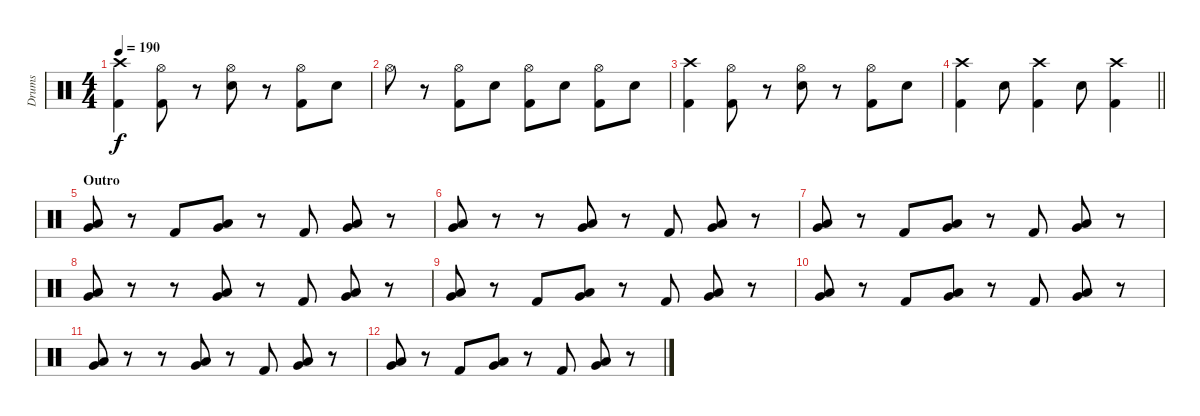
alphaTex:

\track ("Drums" "Drums") {instrument percussion}
\staff {score}
\articulation defaults
\ts (4 4)
\tempo 190
\clef neutral
\ks c
("Crash high (hit)" "Kick (hit) 2").4{dy f} ("Hi-Hat (open)" "Kick (hit) 2").8 r.8 ("Snare (hit) 2" "Hi-Hat (open)").8 r.8 ("Hi-Hat (open)" "Kick (hit) 2").8 "Snare (hit) 2".8 |
"Hi-Hat (open)".8 r.8 ("Hi-Hat (open)" "Kick (hit) 2").8 "Snare (hit) 2".8 ("Hi-Hat (open)" "Kick (hit) 2").8 "Snare (hit) 2".8 ("Hi-Hat (open)" "Kick (hit) 2").8 "Snare (hit) 2".8 |
("Crash high (hit)" "Kick (hit) 2").4 ("Hi-Hat (open)" "Kick (hit) 2").8 r.8 ("Snare (hit) 2" "Hi-Hat (open)").8 r.8 ("Hi-Hat (open)" "Kick (hit) 2").8 "Snare (hit) 2".8 |
\barLineRight lightlight
("Crash high (hit)" "Kick (hit) 2").4 "Snare (hit) 2".8 ("Crash high (hit)" "Kick (hit) 2").4 "Snare (hit) 2".8 ("Crash high (hit)" "Kick (hit) 2").4 |
\section ("" "Outro")
("Low Tom (hit)" "Very Low Tom (hit)").8 r.8 "Kick (hit) 2".8 ("Low Tom (hit)" "Very Low Tom (hit)").8 r.8 "Kick (hit) 2".8 ("Low Tom (hit)" "Very Low Tom (hit)").8 r.8 |
("Low Tom (hit)" "Very Low Tom (hit)").8 r.8 r.8 ("Low Tom (hit)" "Very Low Tom (hit)").8 r.8 "Kick (hit) 2".8 ("Low Tom (hit)" "Very Low Tom (hit)").8 r.8 |
("Low Tom (hit)" "Very Low Tom (hit)").8 r.8 "Kick (hit) 2".8 ("Low Tom (hit)" "Very Low Tom (hit)").8 r.8 "Kick (hit) 2".8 ("Low Tom (hit)" "Very Low Tom (hit)").8 r.8 |
("Low Tom (hit)" "Very Low Tom (hit)").8 r.8 r.8 ("Low Tom (hit)" "Very Low Tom (hit)").8 r.8 "Kick (hit) 2".8 ("Low Tom (hit)" "Very Low Tom (hit)").8 r.8 |
("Low Tom (hit)" "Very Low Tom (hit)").8 r.8 "Kick (hit) 2".8 ("Low Tom (hit)" "Very Low Tom (hit)").8 r.8 "Kick (hit) 2".8 ("Low Tom (hit)" "Very Low Tom (hit)").8 r.8 |
("Low Tom (hit)" "Very Low Tom (hit)").8 r.8 "Kick (hit) 2".8 ("Low Tom (hit)" "Very Low Tom (hit)").8 r.8 "Kick (hit) 2".8 ("Low Tom (hit)" "Very Low Tom (hit)").8 r.8 |
("Low Tom (hit)" "Very Low Tom (hit)").8 r.8 r.8 ("Low Tom (hit)" "Very Low Tom (hit)").8 r.8 "Kick (hit) 2".8 ("Low Tom (hit)" "Very Low Tom (hit)").8 r.8 |
("Low Tom (hit)" "Very Low Tom (hit)").8 r.8 "Kick (hit) 2".8 ("Low Tom (hit)" "Very Low Tom (hit)").8 r.8 "Kick (hit) 2".8 ("Low Tom (hit)" "Very Low Tom (hit)").8 r.8
